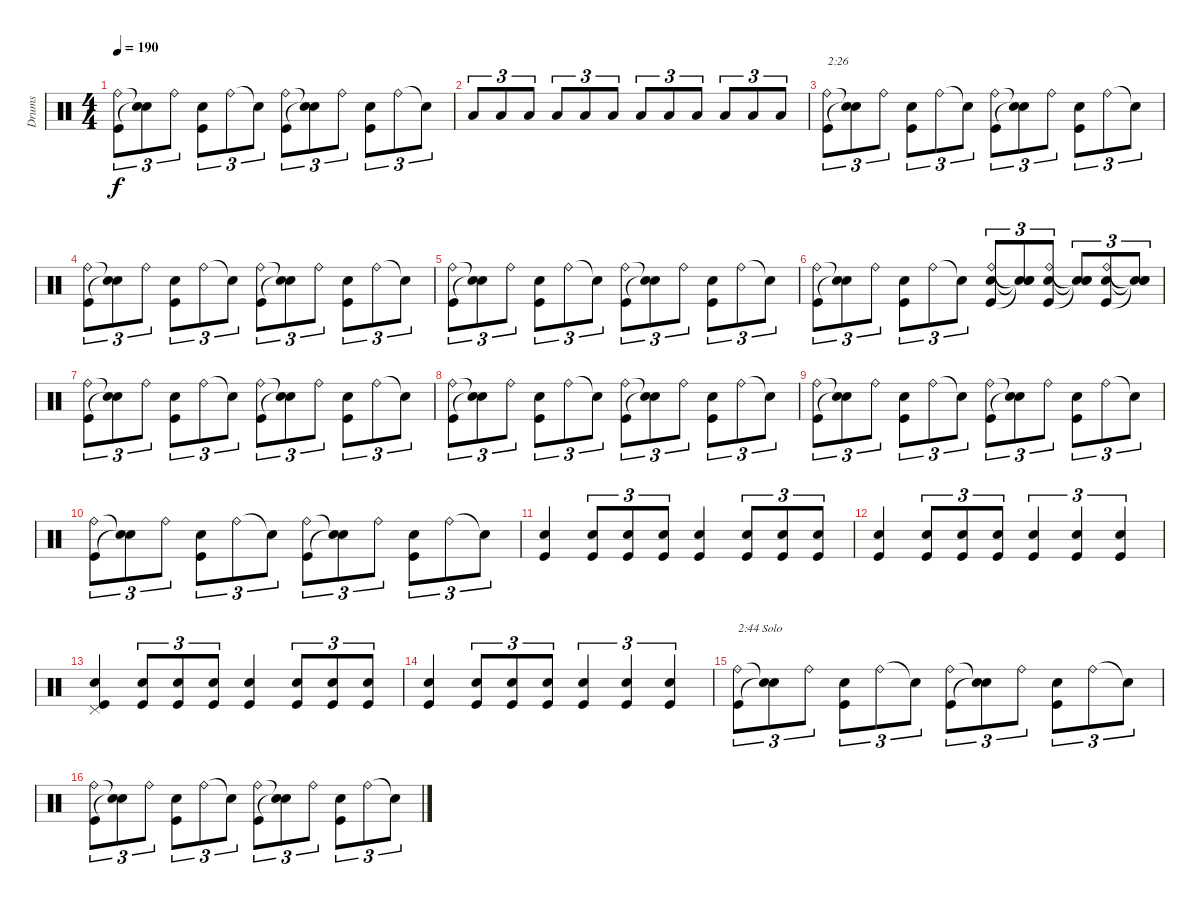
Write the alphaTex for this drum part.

\track ("Drums" "Drums") {instrument percussion}
\staff {score}
\articulation defaults
\ts (4 4)
\tempo 190
\clef neutral
\ks c
("Kick (hit)" "Ride (bell)").8{tu (3 2) dy f} ("Snare (hit)"{t} "Snare (hit)"{t}).8{tu (3 2)} "Ride (bell)".8{tu (3 2)} ("Kick (hit)" "Snare (hit) 2").8{tu (3 2)} "Ride (bell)".8{tu (3 2)} "Snare (hit)"{t}.8{tu (3 2)} ("Kick (hit)" "Ride (bell)").8{tu (3 2)} ("Snare (hit)"{t} "Snare (hit)"{t}).8{tu (3 2)} "Ride (bell)".8{tu (3 2)} ("Kick (hit)" "Snare (hit) 2").8{tu (3 2)} "Ride (bell)".8{tu (3 2)} "Snare (hit)"{t}.8{tu (3 2)} |
"Low Floor Tom (hit)".8{tu (3 2)} "Low Floor Tom (hit)".8{tu (3 2)} "Low Floor Tom (hit)".8{tu (3 2)} "Low Floor Tom (hit)".8{tu (3 2)} "Low Floor Tom (hit)".8{tu (3 2)} "Low Floor Tom (hit)".8{tu (3 2)} "Low Floor Tom (hit)".8{tu (3 2)} "Low Floor Tom (hit)".8{tu (3 2)} "Low Floor Tom (hit)".8{tu (3 2)} "Low Floor Tom (hit)".8{tu (3 2)} "Low Floor Tom (hit)".8{tu (3 2)} "Low Floor Tom (hit)".8{tu (3 2)} |
("Kick (hit)" "Ride (bell)").8{tu (3 2) txt "2:26"} ("Snare (hit)"{t} "Snare (hit)"{t}).8{tu (3 2)} "Ride (bell)".8{tu (3 2)} ("Kick (hit)" "Snare (hit) 2").8{tu (3 2)} "Ride (bell)".8{tu (3 2)} "Snare (hit)"{t}.8{tu (3 2)} ("Kick (hit)" "Ride (bell)").8{tu (3 2)} ("Snare (hit)"{t} "Snare (hit)"{t}).8{tu (3 2)} "Ride (bell)".8{tu (3 2)} ("Kick (hit)" "Snare (hit) 2").8{tu (3 2)} "Ride (bell)".8{tu (3 2)} "Snare (hit)"{t}.8{tu (3 2)} |
("Kick (hit)" "Ride (bell)").8{tu (3 2)} ("Snare (hit)"{t} "Snare (hit)"{t}).8{tu (3 2)} "Ride (bell)".8{tu (3 2)} ("Kick (hit)" "Snare (hit) 2").8{tu (3 2)} "Ride (bell)".8{tu (3 2)} "Snare (hit)"{t}.8{tu (3 2)} ("Kick (hit)" "Ride (bell)").8{tu (3 2)} ("Snare (hit)"{t} "Snare (hit)"{t}).8{tu (3 2)} "Ride (bell)".8{tu (3 2)} ("Kick (hit)" "Snare (hit) 2").8{tu (3 2)} "Ride (bell)".8{tu (3 2)} "Snare (hit)"{t}.8{tu (3 2)} |
("Kick (hit)" "Ride (bell)").8{tu (3 2)} ("Snare (hit)"{t} "Snare (hit)"{t}).8{tu (3 2)} "Ride (bell)".8{tu (3 2)} ("Kick (hit)" "Snare (hit) 2").8{tu (3 2)} "Ride (bell)".8{tu (3 2)} "Snare (hit)"{t}.8{tu (3 2)} ("Kick (hit)" "Ride (bell)").8{tu (3 2)} ("Snare (hit)"{t} "Snare (hit)"{t}).8{tu (3 2)} "Ride (bell)".8{tu (3 2)} ("Kick (hit)" "Snare (hit) 2").8{tu (3 2)} "Ride (bell)".8{tu (3 2)} "Snare (hit)"{t}.8{tu (3 2)} |
("Kick (hit)" "Ride (bell)").8{tu (3 2)} ("Snare (hit)"{t} "Snare (hit)"{t}).8{tu (3 2)} "Ride (bell)".8{tu (3 2)} ("Kick (hit)" "Snare (hit) 2").8{tu (3 2)} "Ride (bell)".8{tu (3 2)} "Snare (hit)"{t}.8{tu (3 2)} ("Kick (hit)" "Snare (hit) 2" "Ride (bell)").8{tu (3 2)} ("Snare (hit)"{t} "Snare (hit)"{t} "Snare (hit)"{t}).8{tu (3 2)} ("Kick (hit)" "Snare (hit) 2" "Ride (bell)").8{tu (3 2)} ("Snare (hit)"{t} "Snare (hit)"{t} "Snare (hit)"{t}).8{tu (3 2)} ("Kick (hit)" "Snare (hit) 2" "Ride (bell)").8{tu (3 2)} ("Snare (hit)"{t} "Snare (hit)"{t} "Snare (hit)"{t}).8{tu (3 2)} |
("Kick (hit)" "Ride (bell)").8{tu (3 2)} ("Snare (hit)"{t} "Snare (hit)"{t}).8{tu (3 2)} "Ride (bell)".8{tu (3 2)} ("Kick (hit)" "Snare (hit) 2").8{tu (3 2)} "Ride (bell)".8{tu (3 2)} "Snare (hit)"{t}.8{tu (3 2)} ("Kick (hit)" "Ride (bell)").8{tu (3 2)} ("Snare (hit)"{t} "Snare (hit)"{t}).8{tu (3 2)} "Ride (bell)".8{tu (3 2)} ("Kick (hit)" "Snare (hit) 2").8{tu (3 2)} "Ride (bell)".8{tu (3 2)} "Snare (hit)"{t}.8{tu (3 2)} |
("Kick (hit)" "Ride (bell)").8{tu (3 2)} ("Snare (hit)"{t} "Snare (hit)"{t}).8{tu (3 2)} "Ride (bell)".8{tu (3 2)} ("Kick (hit)" "Snare (hit) 2").8{tu (3 2)} "Ride (bell)".8{tu (3 2)} "Snare (hit)"{t}.8{tu (3 2)} ("Kick (hit)" "Ride (bell)").8{tu (3 2)} ("Snare (hit)"{t} "Snare (hit)"{t}).8{tu (3 2)} "Ride (bell)".8{tu (3 2)} ("Kick (hit)" "Snare (hit) 2").8{tu (3 2)} "Ride (bell)".8{tu (3 2)} "Snare (hit)"{t}.8{tu (3 2)} |
("Kick (hit)" "Ride (bell)").8{tu (3 2)} ("Snare (hit)"{t} "Snare (hit)"{t}).8{tu (3 2)} "Ride (bell)".8{tu (3 2)} ("Kick (hit)" "Snare (hit) 2").8{tu (3 2)} "Ride (bell)".8{tu (3 2)} "Snare (hit)"{t}.8{tu (3 2)} ("Kick (hit)" "Ride (bell)").8{tu (3 2)} ("Snare (hit)"{t} "Snare (hit)"{t}).8{tu (3 2)} "Ride (bell)".8{tu (3 2)} ("Kick (hit)" "Snare (hit) 2").8{tu (3 2)} "Ride (bell)".8{tu (3 2)} "Snare (hit)"{t}.8{tu (3 2)} |
("Kick (hit)" "Ride (bell)").8{tu (3 2)} ("Snare (hit)"{t} "Snare (hit)"{t}).8{tu (3 2)} "Ride (bell)".8{tu (3 2)} ("Kick (hit)" "Snare (hit) 2").8{tu (3 2)} "Ride (bell)".8{tu (3 2)} "Snare (hit)"{t}.8{tu (3 2)} ("Kick (hit)" "Ride (bell)").8{tu (3 2)} ("Snare (hit)"{t} "Snare (hit)"{t}).8{tu (3 2)} "Ride (bell)".8{tu (3 2)} ("Kick (hit)" "Snare (hit) 2").8{tu (3 2)} "Ride (bell)".8{tu (3 2)} "Snare (hit)"{t}.8{tu (3 2)} |
("Kick (hit)" "Snare (hit) 2").4 ("Kick (hit)" "Snare (hit) 2").8{tu (3 2)} ("Kick (hit)" "Snare (hit) 2").8{tu (3 2)} ("Kick (hit)" "Snare (hit) 2").8{tu (3 2)} ("Kick (hit)" "Snare (hit) 2").4 ("Kick (hit)" "Snare (hit) 2").8{tu (3 2)} ("Kick (hit)" "Snare (hit) 2").8{tu (3 2)} ("Kick (hit)" "Snare (hit) 2").8{tu (3 2)} |
("Kick (hit)" "Snare (hit) 2").4 ("Kick (hit)" "Snare (hit) 2").8{tu (3 2)} ("Kick (hit)" "Snare (hit) 2").8{tu (3 2)} ("Kick (hit)" "Snare (hit) 2").8{tu (3 2)} ("Kick (hit)" "Snare (hit) 2").4{tu (3 2)} ("Kick (hit)" "Snare (hit) 2").4{tu (3 2)} ("Kick (hit)" "Snare (hit) 2").4{tu (3 2)} |
("Kick (hit)" "Snare (hit) 2" "Pedal Hi-Hat (hit)").4 ("Kick (hit)" "Snare (hit) 2").8{tu (3 2)} ("Kick (hit)" "Snare (hit) 2").8{tu (3 2)} ("Kick (hit)" "Snare (hit) 2").8{tu (3 2)} ("Kick (hit)" "Snare (hit) 2").4 ("Kick (hit)" "Snare (hit) 2").8{tu (3 2)} ("Kick (hit)" "Snare (hit) 2").8{tu (3 2)} ("Kick (hit)" "Snare (hit) 2").8{tu (3 2)} |
("Kick (hit)" "Snare (hit) 2").4 ("Kick (hit)" "Snare (hit) 2").8{tu (3 2)} ("Kick (hit)" "Snare (hit) 2").8{tu (3 2)} ("Kick (hit)" "Snare (hit) 2").8{tu (3 2)} ("Kick (hit)" "Snare (hit) 2").4{tu (3 2)} ("Kick (hit)" "Snare (hit) 2").4{tu (3 2)} ("Kick (hit)" "Snare (hit) 2").4{tu (3 2)} |
("Kick (hit)" "Ride (bell)").8{tu (3 2) txt "2:44 Solo"} ("Snare (hit)"{t} "Snare (hit)"{t}).8{tu (3 2)} "Ride (bell)".8{tu (3 2)} ("Kick (hit)" "Snare (hit) 2").8{tu (3 2)} "Ride (bell)".8{tu (3 2)} "Snare (hit)"{t}.8{tu (3 2)} ("Kick (hit)" "Ride (bell)").8{tu (3 2)} ("Snare (hit)"{t} "Snare (hit)"{t}).8{tu (3 2)} "Ride (bell)".8{tu (3 2)} ("Kick (hit)" "Snare (hit) 2").8{tu (3 2)} "Ride (bell)".8{tu (3 2)} "Snare (hit)"{t}.8{tu (3 2)} |
("Kick (hit)" "Ride (bell)").8{tu (3 2)} ("Snare (hit)"{t} "Snare (hit)"{t}).8{tu (3 2)} "Ride (bell)".8{tu (3 2)} ("Kick (hit)" "Snare (hit) 2").8{tu (3 2)} "Ride (bell)".8{tu (3 2)} "Snare (hit)"{t}.8{tu (3 2)} ("Kick (hit)" "Ride (bell)").8{tu (3 2)} ("Snare (hit)"{t} "Snare (hit)"{t}).8{tu (3 2)} "Ride (bell)".8{tu (3 2)} ("Kick (hit)" "Snare (hit) 2").8{tu (3 2)} "Ride (bell)".8{tu (3 2)} "Snare (hit)"{t}.8{tu (3 2)}
